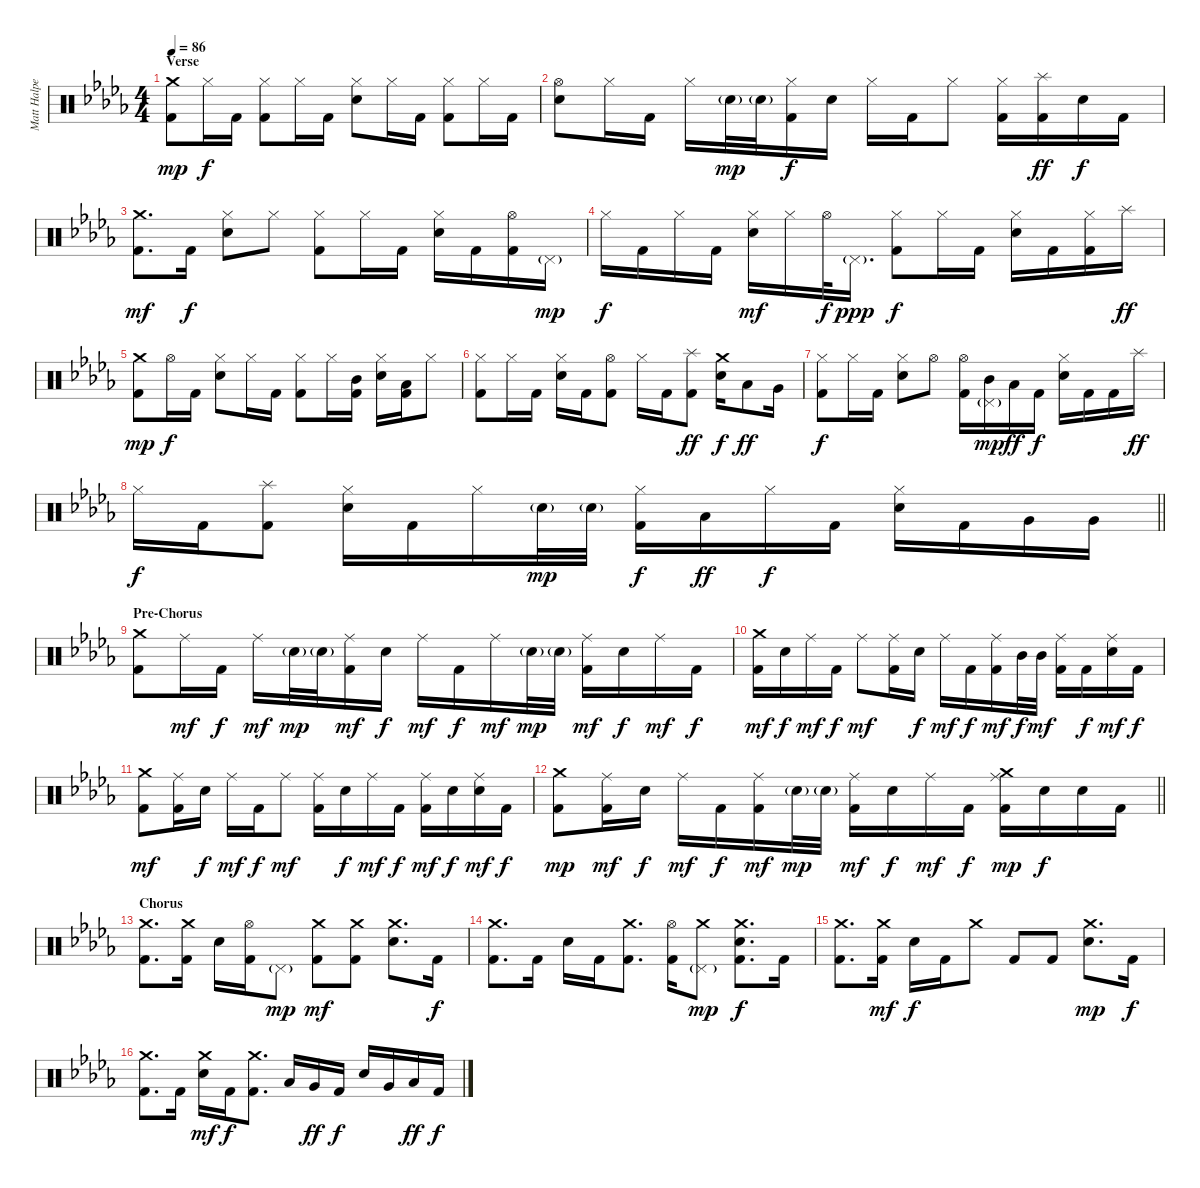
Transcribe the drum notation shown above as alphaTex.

\track ("Matt Halpern - Drums" "Matt Halpe") {instrument percussion}
\staff {score}
\articulation defaults
\ts (4 4)
\section ("" "Verse")
\tempo 86
\clef neutral
\ks bbminor
("Crash medium (hit)" "Kick (hit) 2").8{dy mp} "Hi-Hat (closed)".16{dy f} "Kick (hit) 2".16 ("Hi-Hat (closed)" "Kick (hit) 2").8 "Hi-Hat (closed)".16 "Kick (hit) 2".16 ("Hi-Hat (closed)" "Snare (hit) 2").8 "Hi-Hat (closed)".16 "Kick (hit) 2".16 ("Hi-Hat (closed)" "Kick (hit) 2").8 "Hi-Hat (closed)".16 "Kick (hit) 2".16 |
("Hi-Hat (open)" "Snare (hit) 2").8 "Hi-Hat (closed)".16 "Kick (hit) 2".16 "Hi-Hat (closed)".16 "Snare (hit) 2"{g}.32{dy mp} "Snare (hit) 2"{g}.32 ("Hi-Hat (closed)" "Kick (hit) 2").16{dy f} "Snare (hit) 2".16 "Hi-Hat (closed)".16 "Kick (hit) 2".16 "Hi-Hat (closed)".8 ("Hi-Hat (closed)" "Kick (hit) 2").16 ("Splash (hit)" "Kick (hit) 2").16{dy ff} "Snare (hit) 2".16{dy f} "Kick (hit) 2".16 |
("Crash medium (hit)" "Kick (hit) 2").8{d dy mf} "Kick (hit) 2".16{dy f} ("Hi-Hat (closed)" "Snare (hit) 2").8 "Hi-Hat (closed)".8 ("Hi-Hat (closed)" "Kick (hit) 2").8 "Hi-Hat (closed)".16 "Kick (hit) 2".16 ("Hi-Hat (closed)" "Snare (hit) 2").16 "Kick (hit) 2".16 ("Hi-Hat (open)" "Kick (hit) 2").16 "Pedal Hi-Hat (hit)"{g}.16{dy mp} |
"Hi-Hat (closed)".16{dy f} "Kick (hit) 2".16 "Hi-Hat (closed)".16 "Kick (hit) 2".16 ("Hi-Hat (closed)" "Snare (hit) 2").16{dy mf} "Hi-Hat (closed)".16 "Hi-Hat (open)".32{dy f} "Pedal Hi-Hat (hit)"{g}.16{d dy ppp} ("Hi-Hat (closed)" "Kick (hit) 2").8{dy f} "Hi-Hat (closed)".16 "Kick (hit) 2".16 ("Hi-Hat (closed)" "Snare (hit) 2").16 "Kick (hit) 2".16 ("Hi-Hat (closed)" "Kick (hit) 2").16 "Splash (hit)".16{dy ff} |
("Crash medium (hit)" "Kick (hit) 2").8{dy mp} "Hi-Hat (open)".16{dy f} "Kick (hit) 2".16 ("Hi-Hat (closed)" "Snare (hit) 2").8 "Hi-Hat (closed)".16 "Kick (hit) 2".16 ("Hi-Hat (closed)" "Kick (hit) 2").8 "Hi-Hat (closed)".16 ("Mid Tom (hit)" "Kick (hit) 2").16 ("Hi-Hat (closed)" "Snare (hit) 2").16 ("Low Tom (hit)" "Kick (hit) 2").16 "Hi-Hat (closed)".8 |
("Hi-Hat (closed)" "Kick (hit) 2").8 "Hi-Hat (closed)".16 "Kick (hit) 2".16 ("Hi-Hat (closed)" "Snare (hit) 2").16 "Kick (hit) 2".16 ("Hi-Hat (open)" "Kick (hit) 2").8 "Hi-Hat (closed)".16 "Kick (hit) 2".16 ("Splash (hit)" "Kick (hit) 2").8{dy ff} ("Crash medium (hit)" "Snare (hit) 2").16{dy f} "Low Floor Tom (hit)".8{dy ff} "Very Low Tom (hit)".16 |
("Hi-Hat (closed)" "Kick (hit) 2").8{dy f} "Hi-Hat (closed)".16 "Kick (hit) 2".16 ("Hi-Hat (closed)" "Snare (hit) 2").8 "Hi-Hat (open)".8 ("Hi-Hat (open)" "Kick (hit) 2").16 ("Mid Tom (hit)" "Pedal Hi-Hat (hit)"{g}).16{dy mp} "Low Tom (hit)".16{dy ff} "Kick (hit) 2".16{dy f} ("Hi-Hat (closed)" "Snare (hit) 2").16 "Kick (hit) 2".16 "Kick (hit) 2".16 "Splash (hit)".16{dy ff} |
\barLineRight lightlight "Hi-Hat (closed)".16{dy f} "Kick (hit) 2".16
("Splash (hit)" "Kick (hit) 2").8 ("Hi-Hat (closed)" "Snare (hit) 2").16 "Kick (hit) 2".16 "Hi-Hat (closed)".16 "Snare (hit) 2"{g}.32{dy mp} "Snare (hit) 2"{g}.32 ("Hi-Hat (closed)" "Kick (hit) 2").16{dy f} "Low Floor Tom (hit)".16{dy ff} "Hi-Hat (closed)".16{dy f} "Kick (hit) 2".16 ("Hi-Hat (closed)" "Snare (hit) 2").16 "Kick (hit) 2".16 "Very Low Tom (hit)".16 "Very Low Tom (hit)".16 |
\section ("" "Pre-Chorus")
("Crash medium (hit)" "Kick (hit) 2").8 "Ride (middle)".16{dy mf} "Kick (hit) 2".16{dy f} "Ride (middle)".16{dy mf} "Snare (hit) 2"{g}.32{dy mp} "Snare (hit) 2"{g}.32 ("Ride (middle)" "Kick (hit) 2").16{dy mf} "Snare (hit) 2".16{dy f} "Ride (middle)".16{dy mf} "Kick (hit) 2".16{dy f} "Ride (middle)".16{dy mf} "Snare (hit) 2"{g}.32{dy mp} "Snare (hit) 2"{g}.32 ("Ride (middle)" "Kick (hit) 2").16{dy mf} "Snare (hit) 2".16{dy f} "Ride (middle)".16{dy mf} "Kick (hit) 2".16{dy f} |
("Crash medium (hit)" "Kick (hit) 2").16{dy mf} "Snare (hit) 2".16{dy f} "Ride (middle)".16{dy mf} "Kick (hit) 2".16{dy f} "Ride (middle)".8{dy mf} ("Ride (middle)" "Kick (hit) 2").16 "Snare (hit) 2".16{dy f} "Ride (middle)".16{dy mf} "Kick (hit) 2".16{dy f} ("Ride (middle)" "Kick (hit) 2").16{dy mf} "Mid Tom (hit)".32{dy f} "Mid Tom (hit)".32{dy mf} ("Ride (middle)" "Kick (hit) 2").16 "Kick (hit) 2".16{dy f} ("Ride (middle)" "Snare (hit) 2").16{dy mf} "Kick (hit) 2".16{dy f} |
("Crash medium (hit)" "Kick (hit) 2").8{dy mf} ("Ride (middle)" "Kick (hit) 2").16 "Snare (hit) 2".16{dy f} "Ride (middle)".16{dy mf} "Kick (hit) 2".16{dy f} "Ride (middle)".8{dy mf} ("Ride (middle)" "Kick (hit) 2").16 "Snare (hit) 2".16{dy f} "Ride (middle)".16{dy mf} "Kick (hit) 2".16{dy f} ("Ride (middle)" "Kick (hit) 2").16{dy mf} "Snare (hit) 2".16{dy f} ("Ride (middle)" "Snare (hit) 2").16{dy mf} "Kick (hit) 2".16{dy f} |
\barLineRight lightlight
("Crash medium (hit)" "Kick (hit) 2").8{dy mp} ("Ride (middle)" "Kick (hit) 2").16{dy mf} "Snare (hit) 2".16{dy f} "Ride (middle)".16{dy mf} "Kick (hit) 2".16{dy f} ("Ride (middle)" "Kick (hit) 2").16{dy mf} "Snare (hit) 2"{g}.32{dy mp} "Snare (hit) 2"{g}.32 ("Ride (middle)" "Kick (hit) 2").16{dy mf} "Snare (hit) 2".16{dy f} "Ride (middle)".16{dy mf} "Kick (hit) 2".16{dy f} ("Ride (middle)" "Crash medium (hit)" "Kick (hit) 2").16{dy mp} "Snare (hit) 2".16{dy f} "Snare (hit) 2".16 "Kick (hit) 2".16 |
\section ("" "Chorus")
("Crash medium (hit)" "Kick (hit) 2").8{d} ("Crash medium (hit)" "Kick (hit) 2").16 "Snare (hit) 2".16 ("Hi-Hat (open)" "Kick (hit) 2").16 "Pedal Hi-Hat (hit)"{g}.8{dy mp} ("Crash medium (hit)" "Kick (hit) 2").8{dy mf} ("Crash medium (hit)" "Kick (hit) 2").8 ("Crash medium (hit)" "Snare (hit) 2").8{d} "Kick (hit) 2".16{dy f} |
("Crash medium (hit)" "Kick (hit) 2").8{d} "Kick (hit) 2".16 "Snare (hit) 2".16 "Kick (hit) 2".16 ("Crash medium (hit)" "Kick (hit) 2").8{d} ("Hi-Hat (open)" "Kick (hit) 2").16 ("Crash medium (hit)" "Pedal Hi-Hat (hit)"{g}).8{dy mp} ("Crash medium (hit)" "Snare (hit) 2" "Kick (hit) 2").8{d dy f} "Kick (hit) 2".16 |
("Crash medium (hit)" "Kick (hit) 2").8{d} ("Crash medium (hit)" "Kick (hit) 2").16{dy mf} "Snare (hit) 2".16{dy f} "Kick (hit) 2".16 "Crash medium (hit)".8 "Kick (hit) 2".8 "Kick (hit) 2".8 ("Crash medium (hit)" "Snare (hit) 2").8{d dy mp} "Kick (hit) 2".16{dy f} |
("Crash medium (hit)" "Kick (hit) 2").8{d} "Kick (hit) 2".16 ("Crash medium (hit)" "Snare (hit) 2").16{dy mf} "Kick (hit) 2".16{dy f} ("Crash medium (hit)" "Kick (hit) 2").8{d} "Low Tom (hit)".16 "Very Low Tom (hit)".16{dy ff} "Kick (hit) 2".16{dy f} "Snare (hit) 2".16 "Very Low Tom (hit)".16 "Low Floor Tom (hit)".16{dy ff} "Kick (hit) 2".16{dy f}
